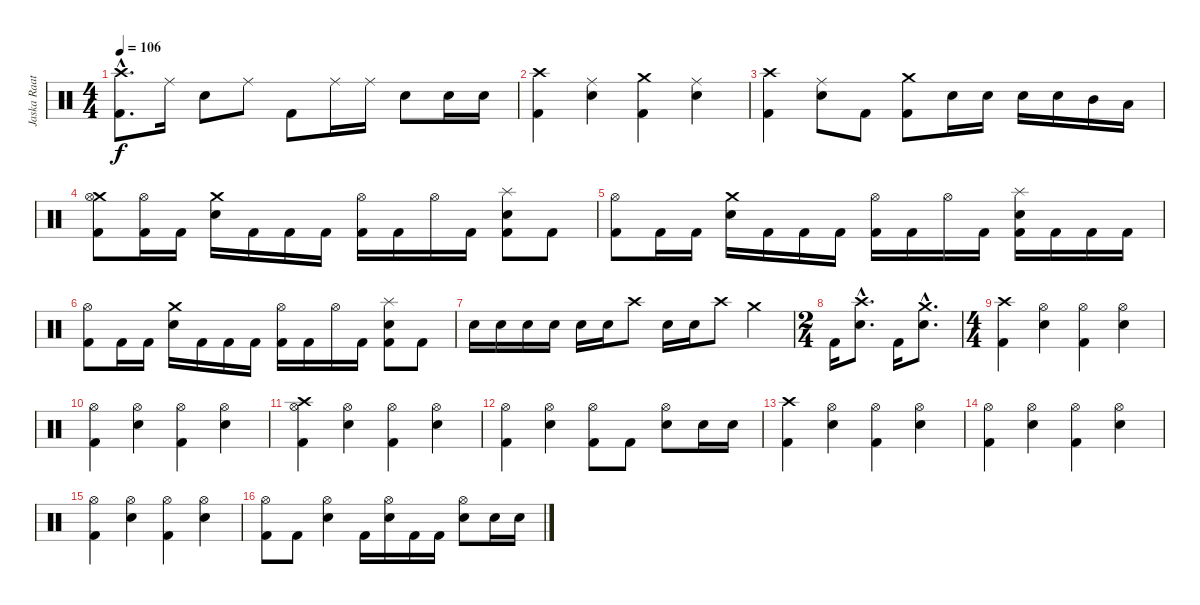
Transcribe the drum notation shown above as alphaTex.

\track ("Jaska Raatikainen" "Jaska Raat") {instrument percussion}
\staff {score}
\articulation defaults
\ts (4 4)
\tempo 106
\clef neutral
\ks c
("Kick (hit) 2"{hac} "Crash high (hit)"{hac}).8{d dy f} "Ride (middle)".16 "Snare (hit) 2".8 "Ride (middle)".8 "Kick (hit) 2".8 "Ride (middle)".16 "Ride (middle)".16 "Snare (hit) 2".8 "Snare (hit) 2".16 "Snare (hit) 2".16 |
("Kick (hit) 2" "Crash high (hit)").4 ("Ride (middle)" "Snare (hit) 2").4 ("Kick (hit) 2" "Crash medium (hit)").4 ("Ride (middle)" "Snare (hit) 2").4 |
("Kick (hit) 2" "Crash high (hit)").4 ("Ride (middle)" "Snare (hit) 2").8 "Kick (hit) 2".8 ("Kick (hit) 2" "Crash medium (hit)").8 "Snare (hit) 2".16 "Snare (hit) 2".16 "Snare (hit) 2".16 "Snare (hit) 2".16 "Mid Tom (hit)".16 "Low Tom (hit)".16 |
("Kick (hit) 2" "Crash medium (hit)" "Hi-Hat (open)").8 ("Kick (hit) 2" "Hi-Hat (open)").16 "Kick (hit) 2".16 ("Crash medium (hit)" "Snare (hit) 2").16 "Kick (hit) 2".16 "Kick (hit) 2".16 "Kick (hit) 2".16 ("Kick (hit) 2" "Hi-Hat (open)").16 "Kick (hit) 2".16 "Hi-Hat (open)".16 "Kick (hit) 2".16 ("Kick (hit) 2" "Splash (hit)" "Snare (hit) 2").8 "Kick (hit) 2".8 |
("Kick (hit) 2" "Hi-Hat (open)").8 "Kick (hit) 2".16 "Kick (hit) 2".16 ("Crash medium (hit)" "Snare (hit) 2").16 "Kick (hit) 2".16 "Kick (hit) 2".16 "Kick (hit) 2".16 ("Kick (hit) 2" "Hi-Hat (open)").16 "Kick (hit) 2".16 "Hi-Hat (open)".16 "Kick (hit) 2".16 ("Kick (hit) 2" "Splash (hit)" "Snare (hit) 2").16 "Kick (hit) 2".16 "Kick (hit) 2".16 "Kick (hit) 2".16 |
("Kick (hit) 2" "Hi-Hat (open)").8 "Kick (hit) 2".16 "Kick (hit) 2".16 ("Crash medium (hit)" "Snare (hit) 2").16 "Kick (hit) 2".16 "Kick (hit) 2".16 "Kick (hit) 2".16 ("Kick (hit) 2" "Hi-Hat (open)").16 "Kick (hit) 2".16 "Hi-Hat (open)".16 "Kick (hit) 2".16 ("Kick (hit) 2" "Splash (hit)" "Snare (hit) 2").8 "Kick (hit) 2".8 |
"Snare (hit) 2".16 "Snare (hit) 2".16 "Snare (hit) 2".16 "Snare (hit) 2".16 "Snare (hit) 2".16 "Snare (hit) 2".16 "Crash high (hit)".8 "Snare (hit) 2".16 "Snare (hit) 2".16 "Crash high (hit)".8 "Crash medium (hit)".4 |
\ts (2 4)
"Kick (hit) 2".16 ("Crash high (hit)"{hac} "Snare (hit) 2"{hac}).8{d} "Kick (hit) 2".16 ("Crash medium (hit)"{hac} "Snare (hit) 2"{hac}).8{d} |
\ts (4 4)
("Kick (hit) 2" "Crash high (hit)").4 ("Hi-Hat (open)" "Snare (hit) 2").4 ("Kick (hit) 2" "Hi-Hat (open)").4 ("Hi-Hat (open)" "Snare (hit) 2").4 |
("Kick (hit) 2" "Hi-Hat (open)").4 ("Hi-Hat (open)" "Snare (hit) 2").4 ("Kick (hit) 2" "Hi-Hat (open)").4 ("Hi-Hat (open)" "Snare (hit) 2").4 |
("Kick (hit) 2" "Crash high (hit)" "Hi-Hat (open)").4 ("Hi-Hat (open)" "Snare (hit) 2").4 ("Kick (hit) 2" "Hi-Hat (open)").4 ("Hi-Hat (open)" "Snare (hit) 2").4 |
("Kick (hit) 2" "Hi-Hat (open)").4 ("Hi-Hat (open)" "Snare (hit) 2").4 ("Kick (hit) 2" "Hi-Hat (open)").8 "Kick (hit) 2".8 ("Hi-Hat (open)" "Snare (hit) 2").8 "Snare (hit) 2".16 "Snare (hit) 2".16 |
("Kick (hit) 2" "Crash high (hit)").4 ("Hi-Hat (open)" "Snare (hit) 2").4 ("Kick (hit) 2" "Hi-Hat (open)").4 ("Hi-Hat (open)" "Snare (hit) 2").4 |
("Kick (hit) 2" "Hi-Hat (open)").4 ("Hi-Hat (open)" "Snare (hit) 2").4 ("Kick (hit) 2" "Hi-Hat (open)").4 ("Hi-Hat (open)" "Snare (hit) 2").4 |
("Kick (hit) 2" "Hi-Hat (open)").4 ("Hi-Hat (open)" "Snare (hit) 2").4 ("Kick (hit) 2" "Hi-Hat (open)").4 ("Hi-Hat (open)" "Snare (hit) 2").4 |
("Kick (hit) 2" "Hi-Hat (open)").8 "Kick (hit) 2".8 ("Hi-Hat (open)" "Snare (hit) 2").4 "Kick (hit) 2".16 ("Hi-Hat (open)" "Snare (hit) 2").16 "Kick (hit) 2".16 "Kick (hit) 2".16 ("Hi-Hat (open)" "Snare (hit) 2").8 "Snare (hit) 2".16 "Snare (hit) 2".16
